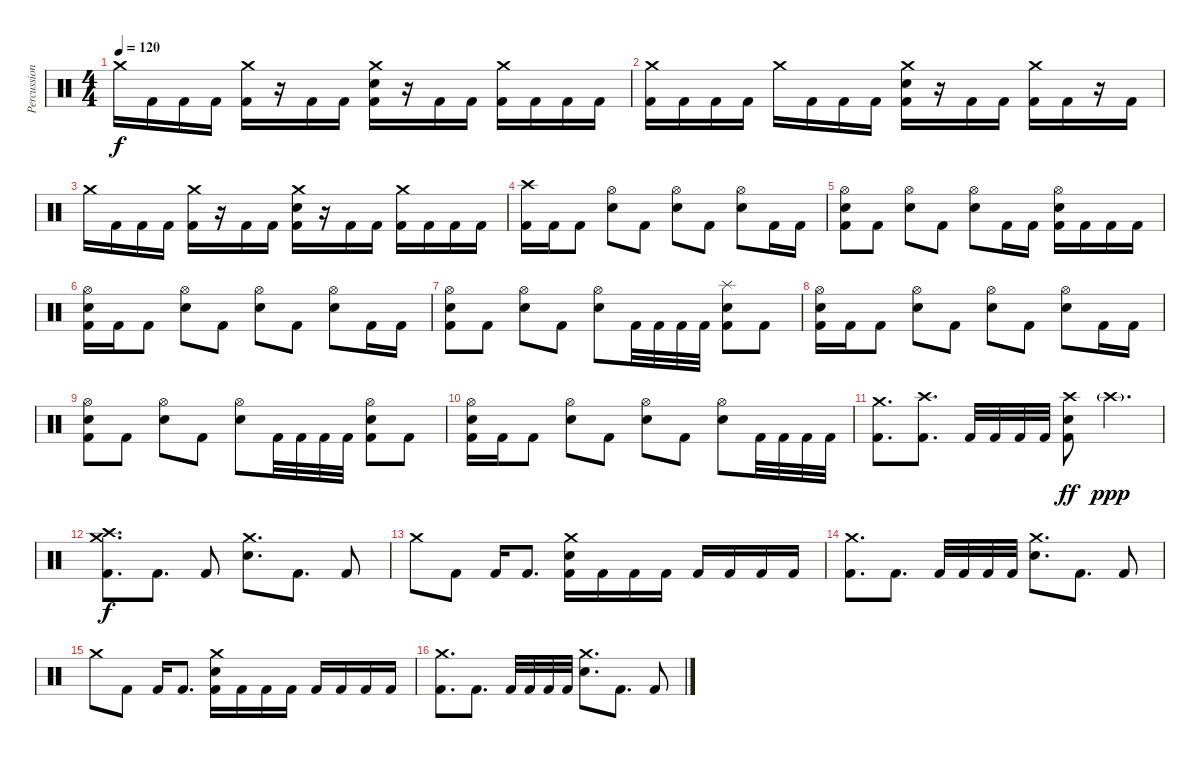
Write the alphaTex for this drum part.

\track ("Percussion" "Percussion") {instrument percussion}
\staff {score}
\articulation defaults
\ts (4 4)
\tempo 120
\clef neutral
\ks c "Crash medium (hit)".16{dy f} "Kick (hit) 2".16 "Kick (hit) 2".16 "Kick (hit) 2".16
("Crash medium (hit)" "Kick (hit) 2").16 r.16 "Kick (hit) 2".16 "Kick (hit) 2".16 ("Crash medium (hit)" "Electric Snare (hit)" "Kick (hit) 2").16 r.16 "Kick (hit) 2".16 "Kick (hit) 2".16 ("Crash medium (hit)" "Kick (hit) 2").16 "Kick (hit) 2".16 "Kick (hit) 2".16 "Kick (hit) 2".16 |
("Crash medium (hit)" "Kick (hit) 2").16 "Kick (hit) 2".16 "Kick (hit) 2".16 "Kick (hit) 2".16 "Crash medium (hit)".16 "Kick (hit) 2".16 "Kick (hit) 2".16 "Kick (hit) 2".16 ("Crash medium (hit)" "Electric Snare (hit)" "Kick (hit) 2").16 r.16 "Kick (hit) 2".16 "Kick (hit) 2".16 ("Crash medium (hit)" "Kick (hit) 2").16 "Kick (hit) 2".16 r.16 "Kick (hit) 2".16 |
"Crash medium (hit)".16 "Kick (hit) 2".16 "Kick (hit) 2".16 "Kick (hit) 2".16 ("Crash medium (hit)" "Kick (hit) 2").16 r.16 "Kick (hit) 2".16 "Kick (hit) 2".16 ("Crash medium (hit)" "Electric Snare (hit)" "Kick (hit) 2").16 r.16 "Kick (hit) 2".16 "Kick (hit) 2".16 ("Crash medium (hit)" "Kick (hit) 2").16 "Kick (hit) 2".16 "Kick (hit) 2".16 "Kick (hit) 2".16 |
("Crash high (hit)" "Kick (hit) 2").16 "Kick (hit) 2".16 "Kick (hit) 2".8 ("Hi-Hat (open)" "Electric Snare (hit)").8 "Kick (hit) 2".8 ("Hi-Hat (open)" "Electric Snare (hit)").8 "Kick (hit) 2".8 ("Hi-Hat (open)" "Electric Snare (hit)").8 "Kick (hit) 2".16 "Kick (hit) 2".16 |
("Hi-Hat (open)" "Electric Snare (hit)" "Kick (hit) 2").8 "Kick (hit) 2".8 ("Hi-Hat (open)" "Electric Snare (hit)").8 "Kick (hit) 2".8 ("Hi-Hat (open)" "Electric Snare (hit)").8 "Kick (hit) 2".16 "Kick (hit) 2".16 ("Hi-Hat (open)" "Electric Snare (hit)" "Kick (hit) 2").16 "Kick (hit) 2".16 "Kick (hit) 2".16 "Kick (hit) 2".16 |
("Hi-Hat (open)" "Electric Snare (hit)" "Kick (hit) 2").16 "Kick (hit) 2".16 "Kick (hit) 2".8 ("Hi-Hat (open)" "Electric Snare (hit)").8 "Kick (hit) 2".8 ("Hi-Hat (open)" "Electric Snare (hit)").8 "Kick (hit) 2".8 ("Hi-Hat (open)" "Electric Snare (hit)").8 "Kick (hit) 2".16 "Kick (hit) 2".16 |
("Hi-Hat (open)" "Electric Snare (hit)" "Kick (hit) 2").8 "Kick (hit) 2".8 ("Hi-Hat (open)" "Electric Snare (hit)").8 "Kick (hit) 2".8 ("Hi-Hat (open)" "Electric Snare (hit)").8 "Kick (hit) 2".32 "Kick (hit) 2".32 "Kick (hit) 2".32 "Kick (hit) 2".32 ("Splash (hit)" "Electric Snare (hit)" "Kick (hit) 2").8 "Kick (hit) 2".8 |
("Hi-Hat (open)" "Electric Snare (hit)" "Kick (hit) 2").16 "Kick (hit) 2".16 "Kick (hit) 2".8 ("Hi-Hat (open)" "Electric Snare (hit)").8 "Kick (hit) 2".8 ("Hi-Hat (open)" "Electric Snare (hit)").8 "Kick (hit) 2".8 ("Hi-Hat (open)" "Electric Snare (hit)").8 "Kick (hit) 2".16 "Kick (hit) 2".16 |
("Hi-Hat (open)" "Electric Snare (hit)" "Kick (hit) 2").8 "Kick (hit) 2".8 ("Hi-Hat (open)" "Electric Snare (hit)").8 "Kick (hit) 2".8 ("Hi-Hat (open)" "Electric Snare (hit)").8 "Kick (hit) 2".32 "Kick (hit) 2".32 "Kick (hit) 2".32 "Kick (hit) 2".32 ("Hi-Hat (open)" "Electric Snare (hit)" "Kick (hit) 2").8 "Kick (hit) 2".8 |
("Hi-Hat (open)" "Electric Snare (hit)" "Kick (hit) 2").16 "Kick (hit) 2".16 "Kick (hit) 2".8 ("Hi-Hat (open)" "Electric Snare (hit)").8 "Kick (hit) 2".8 ("Hi-Hat (open)" "Electric Snare (hit)").8 "Kick (hit) 2".8 ("Hi-Hat (open)" "Electric Snare (hit)").8 "Kick (hit) 2".32 "Kick (hit) 2".32 "Kick (hit) 2".32 "Kick (hit) 2".32 |
("Crash medium (hit)" "Kick (hit) 2").8{d} ("Crash high (hit)" "Kick (hit) 2").8{d} "Kick (hit) 2".32 "Kick (hit) 2".32 "Kick (hit) 2".32 "Kick (hit) 2".32 ("Crash high (hit)" "Electric Snare (hit)" "Kick (hit) 2").8{dy ff} "Crash high (hit)"{g}.4{d dy ppp} |
("Crash medium (hit)" "Crash high (hit)" "Kick (hit) 2").8{d dy f} "Kick (hit) 2".8{d} "Kick (hit) 2".8 ("Crash medium (hit)" "Electric Snare (hit)").8{d} "Kick (hit) 2".8{d} "Kick (hit) 2".8 |
"Crash medium (hit)".8 "Kick (hit) 2".8 "Kick (hit) 2".16 "Kick (hit) 2".8{d} ("Crash medium (hit)" "Electric Snare (hit)" "Kick (hit) 2").16 "Kick (hit) 2".16 "Kick (hit) 2".16 "Kick (hit) 2".16 "Kick (hit) 2".16 "Kick (hit) 2".16 "Kick (hit) 2".16 "Kick (hit) 2".16 |
("Crash medium (hit)" "Kick (hit) 2").8{d} "Kick (hit) 2".8{d} "Kick (hit) 2".32 "Kick (hit) 2".32 "Kick (hit) 2".32 "Kick (hit) 2".32 ("Crash medium (hit)" "Electric Snare (hit)").8{d} "Kick (hit) 2".8{d} "Kick (hit) 2".8 |
"Crash medium (hit)".8 "Kick (hit) 2".8 "Kick (hit) 2".16 "Kick (hit) 2".8{d} ("Crash medium (hit)" "Electric Snare (hit)" "Kick (hit) 2").16 "Kick (hit) 2".16 "Kick (hit) 2".16 "Kick (hit) 2".16 "Kick (hit) 2".16 "Kick (hit) 2".16 "Kick (hit) 2".16 "Kick (hit) 2".16 |
("Crash medium (hit)" "Kick (hit) 2").8{d} "Kick (hit) 2".8{d} "Kick (hit) 2".32 "Kick (hit) 2".32 "Kick (hit) 2".32 "Kick (hit) 2".32 ("Crash medium (hit)" "Electric Snare (hit)").8{d} "Kick (hit) 2".8{d} "Kick (hit) 2".8
